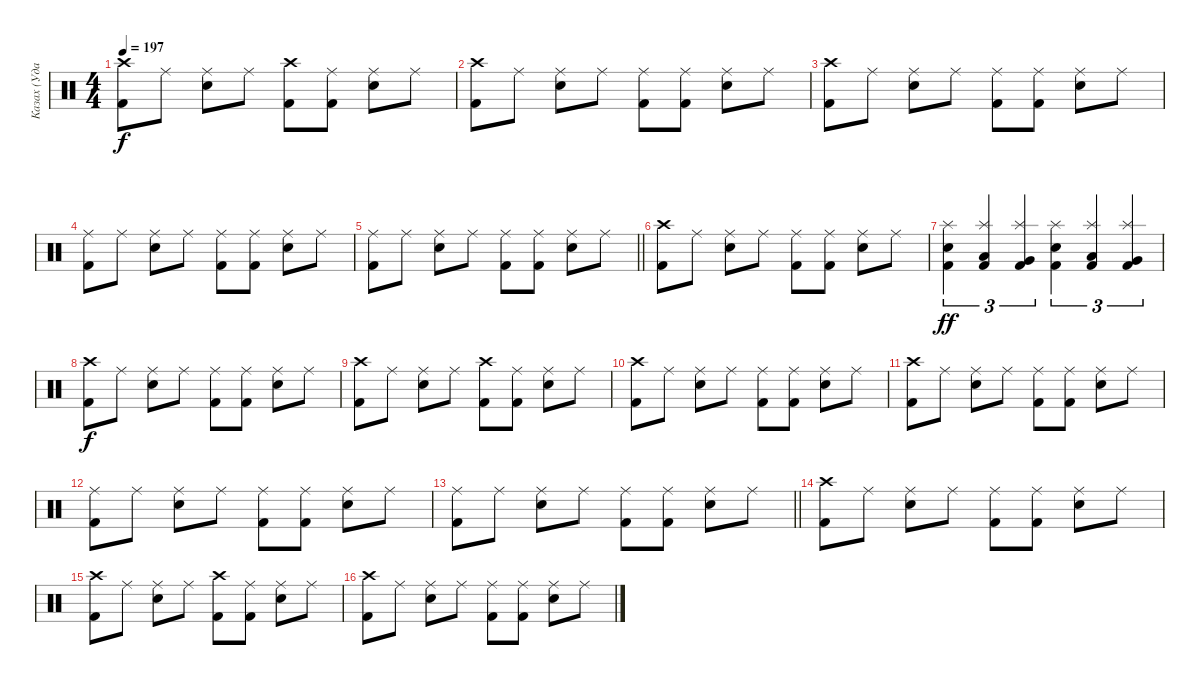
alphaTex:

\track ("Казах (Ударные)" "Казах (Уда") {instrument percussion}
\staff {score}
\articulation defaults
\ts (4 4)
\tempo 197
\clef neutral
\ks c
("Crash high (hit)" "Kick (hit) 2").8{dy f} "Ride (middle)".8 ("Ride (middle)" "Electric Snare (hit)").8 "Ride (middle)".8 ("Crash high (hit)" "Kick (hit) 2").8 ("Ride (middle)" "Kick (hit) 2").8 ("Ride (middle)" "Electric Snare (hit)").8 "Ride (middle)".8 |
("Crash high (hit)" "Kick (hit) 2").8 "Ride (middle)".8 ("Ride (middle)" "Electric Snare (hit)").8 "Ride (middle)".8 ("Ride (middle)" "Kick (hit) 2").8 ("Ride (middle)" "Kick (hit) 2").8 ("Ride (middle)" "Electric Snare (hit)").8 "Ride (middle)".8 |
("Crash high (hit)" "Kick (hit) 2").8 "Ride (middle)".8 ("Ride (middle)" "Electric Snare (hit)").8 "Ride (middle)".8 ("Ride (middle)" "Kick (hit) 2").8 ("Ride (middle)" "Kick (hit) 2").8 ("Ride (middle)" "Electric Snare (hit)").8 "Ride (middle)".8 |
("Ride (middle)" "Kick (hit) 2").8 "Ride (middle)".8 ("Ride (middle)" "Electric Snare (hit)").8 "Ride (middle)".8 ("Ride (middle)" "Kick (hit) 2").8 ("Ride (middle)" "Kick (hit) 2").8 ("Ride (middle)" "Electric Snare (hit)").8 "Ride (middle)".8 |
\barLineRight lightlight
("Ride (middle)" "Kick (hit) 2").8 "Ride (middle)".8 ("Ride (middle)" "Electric Snare (hit)").8 "Ride (middle)".8 ("Ride (middle)" "Kick (hit) 2").8 ("Ride (middle)" "Kick (hit) 2").8 ("Ride (middle)" "Electric Snare (hit)").8 "Ride (middle)".8 |
("Crash high (hit)" "Kick (hit) 2").8 "Ride (middle)".8 ("Ride (middle)" "Electric Snare (hit)").8 "Ride (middle)".8 ("Ride (middle)" "Kick (hit) 2").8 ("Ride (middle)" "Kick (hit) 2").8 ("Ride (middle)" "Electric Snare (hit)").8 "Ride (middle)".8 |
("Splash (hit)" "Electric Snare (hit)" "Kick (hit) 2").4{tu (3 2) dy ff} ("Splash (hit)" "Low Tom (hit)" "Kick (hit) 2").4{tu (3 2)} ("Splash (hit)" "Very Low Tom (hit)" "Kick (hit) 2").4{tu (3 2)} ("Splash (hit)" "Electric Snare (hit)" "Kick (hit) 2").4{tu (3 2)} ("Splash (hit)" "Low Tom (hit)" "Kick (hit) 2").4{tu (3 2)} ("Splash (hit)" "Very Low Tom (hit)" "Kick (hit) 2").4{tu (3 2)} |
("Crash high (hit)" "Kick (hit) 2").8{dy f} "Ride (middle)".8 ("Ride (middle)" "Electric Snare (hit)").8 "Ride (middle)".8 ("Ride (middle)" "Kick (hit) 2").8 ("Ride (middle)" "Kick (hit) 2").8 ("Ride (middle)" "Electric Snare (hit)").8 "Ride (middle)".8 |
("Crash high (hit)" "Kick (hit) 2").8 "Ride (middle)".8 ("Ride (middle)" "Electric Snare (hit)").8 "Ride (middle)".8 ("Crash high (hit)" "Kick (hit) 2").8 ("Ride (middle)" "Kick (hit) 2").8 ("Ride (middle)" "Electric Snare (hit)").8 "Ride (middle)".8 |
("Crash high (hit)" "Kick (hit) 2").8 "Ride (middle)".8 ("Ride (middle)" "Electric Snare (hit)").8 "Ride (middle)".8 ("Ride (middle)" "Kick (hit) 2").8 ("Ride (middle)" "Kick (hit) 2").8 ("Ride (middle)" "Electric Snare (hit)").8 "Ride (middle)".8 |
("Crash high (hit)" "Kick (hit) 2").8 "Ride (middle)".8 ("Ride (middle)" "Electric Snare (hit)").8 "Ride (middle)".8 ("Ride (middle)" "Kick (hit) 2").8 ("Ride (middle)" "Kick (hit) 2").8 ("Ride (middle)" "Electric Snare (hit)").8 "Ride (middle)".8 |
("Ride (middle)" "Kick (hit) 2").8 "Ride (middle)".8 ("Ride (middle)" "Electric Snare (hit)").8 "Ride (middle)".8 ("Ride (middle)" "Kick (hit) 2").8 ("Ride (middle)" "Kick (hit) 2").8 ("Ride (middle)" "Electric Snare (hit)").8 "Ride (middle)".8 |
\barLineRight lightlight
("Ride (middle)" "Kick (hit) 2").8 "Ride (middle)".8 ("Ride (middle)" "Electric Snare (hit)").8 "Ride (middle)".8 ("Ride (middle)" "Kick (hit) 2").8 ("Ride (middle)" "Kick (hit) 2").8 ("Ride (middle)" "Electric Snare (hit)").8 "Ride (middle)".8 |
\section ("" "")
("Crash high (hit)" "Kick (hit) 2").8 "Ride (middle)".8 ("Ride (middle)" "Electric Snare (hit)").8 "Ride (middle)".8 ("Ride (middle)" "Kick (hit) 2").8 ("Ride (middle)" "Kick (hit) 2").8 ("Ride (middle)" "Electric Snare (hit)").8 "Ride (middle)".8 |
("Crash high (hit)" "Kick (hit) 2").8 "Ride (middle)".8 ("Ride (middle)" "Electric Snare (hit)").8 "Ride (middle)".8 ("Crash high (hit)" "Kick (hit) 2").8 ("Ride (middle)" "Kick (hit) 2").8 ("Ride (middle)" "Electric Snare (hit)").8 "Ride (middle)".8 |
("Crash high (hit)" "Kick (hit) 2").8 "Ride (middle)".8 ("Ride (middle)" "Electric Snare (hit)").8 "Ride (middle)".8 ("Ride (middle)" "Kick (hit) 2").8 ("Ride (middle)" "Kick (hit) 2").8 ("Ride (middle)" "Electric Snare (hit)").8 "Ride (middle)".8
